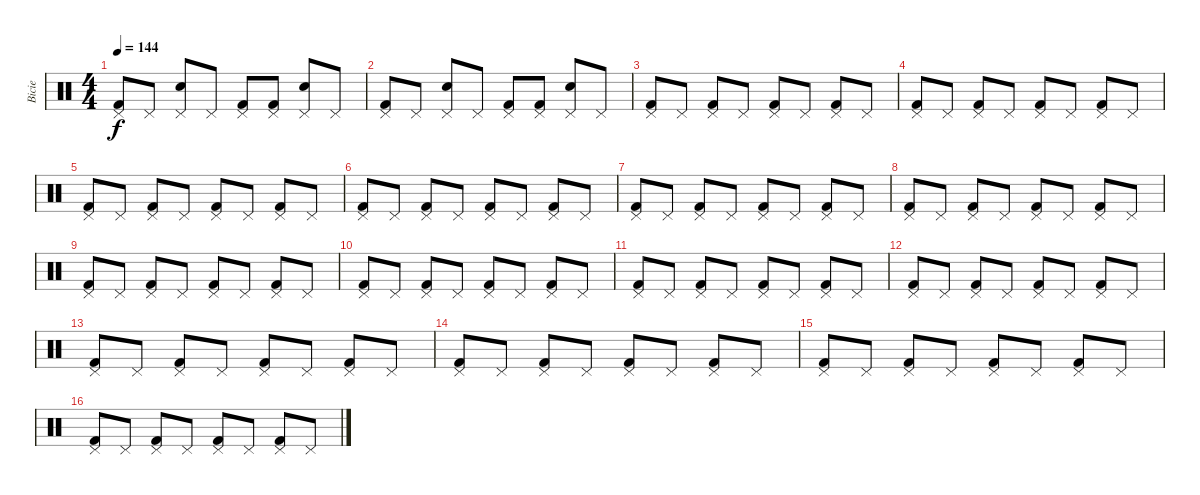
\track ("Bicie" "Bicie") {instrument percussion}
\staff {score}
\articulation defaults
\ts (4 4)
\tempo 144
\clef neutral
\ks c
("Pedal Hi-Hat (hit)" "Kick (hit) 2").8{dy f} "Pedal Hi-Hat (hit)".8 ("Pedal Hi-Hat (hit)" "Snare (hit) 2").8 "Pedal Hi-Hat (hit)".8 ("Pedal Hi-Hat (hit)" "Kick (hit) 2").8 ("Pedal Hi-Hat (hit)" "Kick (hit) 2").8 ("Pedal Hi-Hat (hit)" "Snare (hit) 2").8 "Pedal Hi-Hat (hit)".8 |
("Pedal Hi-Hat (hit)" "Kick (hit) 2").8 "Pedal Hi-Hat (hit)".8 ("Pedal Hi-Hat (hit)" "Snare (hit) 2").8 "Pedal Hi-Hat (hit)".8 ("Pedal Hi-Hat (hit)" "Kick (hit) 2").8 ("Pedal Hi-Hat (hit)" "Kick (hit) 2").8 ("Pedal Hi-Hat (hit)" "Snare (hit) 2").8 "Pedal Hi-Hat (hit)".8 |
("Pedal Hi-Hat (hit)" "Kick (hit) 2").8 "Pedal Hi-Hat (hit)".8 ("Pedal Hi-Hat (hit)" "Kick (hit) 2").8 "Pedal Hi-Hat (hit)".8 ("Pedal Hi-Hat (hit)" "Kick (hit) 2").8 "Pedal Hi-Hat (hit)".8 ("Pedal Hi-Hat (hit)" "Kick (hit) 2").8 "Pedal Hi-Hat (hit)".8 |
("Pedal Hi-Hat (hit)" "Kick (hit) 2").8 "Pedal Hi-Hat (hit)".8 ("Pedal Hi-Hat (hit)" "Kick (hit) 2").8 "Pedal Hi-Hat (hit)".8 ("Pedal Hi-Hat (hit)" "Kick (hit) 2").8 "Pedal Hi-Hat (hit)".8 ("Pedal Hi-Hat (hit)" "Kick (hit) 2").8 "Pedal Hi-Hat (hit)".8 |
("Pedal Hi-Hat (hit)" "Kick (hit) 2").8 "Pedal Hi-Hat (hit)".8 ("Pedal Hi-Hat (hit)" "Kick (hit) 2").8 "Pedal Hi-Hat (hit)".8 ("Pedal Hi-Hat (hit)" "Kick (hit) 2").8 "Pedal Hi-Hat (hit)".8 ("Pedal Hi-Hat (hit)" "Kick (hit) 2").8 "Pedal Hi-Hat (hit)".8 |
("Pedal Hi-Hat (hit)" "Kick (hit) 2").8 "Pedal Hi-Hat (hit)".8 ("Pedal Hi-Hat (hit)" "Kick (hit) 2").8 "Pedal Hi-Hat (hit)".8 ("Pedal Hi-Hat (hit)" "Kick (hit) 2").8 "Pedal Hi-Hat (hit)".8 ("Pedal Hi-Hat (hit)" "Kick (hit) 2").8 "Pedal Hi-Hat (hit)".8 |
("Pedal Hi-Hat (hit)" "Kick (hit) 2").8 "Pedal Hi-Hat (hit)".8 ("Pedal Hi-Hat (hit)" "Kick (hit) 2").8 "Pedal Hi-Hat (hit)".8 ("Pedal Hi-Hat (hit)" "Kick (hit) 2").8 "Pedal Hi-Hat (hit)".8 ("Pedal Hi-Hat (hit)" "Kick (hit) 2").8 "Pedal Hi-Hat (hit)".8 |
("Pedal Hi-Hat (hit)" "Kick (hit) 2").8 "Pedal Hi-Hat (hit)".8 ("Pedal Hi-Hat (hit)" "Kick (hit) 2").8 "Pedal Hi-Hat (hit)".8 ("Pedal Hi-Hat (hit)" "Kick (hit) 2").8 "Pedal Hi-Hat (hit)".8 ("Pedal Hi-Hat (hit)" "Kick (hit) 2").8 "Pedal Hi-Hat (hit)".8 |
("Pedal Hi-Hat (hit)" "Kick (hit) 2").8 "Pedal Hi-Hat (hit)".8 ("Pedal Hi-Hat (hit)" "Kick (hit) 2").8 "Pedal Hi-Hat (hit)".8 ("Pedal Hi-Hat (hit)" "Kick (hit) 2").8 "Pedal Hi-Hat (hit)".8 ("Pedal Hi-Hat (hit)" "Kick (hit) 2").8 "Pedal Hi-Hat (hit)".8 |
("Pedal Hi-Hat (hit)" "Kick (hit) 2").8 "Pedal Hi-Hat (hit)".8 ("Pedal Hi-Hat (hit)" "Kick (hit) 2").8 "Pedal Hi-Hat (hit)".8 ("Pedal Hi-Hat (hit)" "Kick (hit) 2").8 "Pedal Hi-Hat (hit)".8 ("Pedal Hi-Hat (hit)" "Kick (hit) 2").8 "Pedal Hi-Hat (hit)".8 |
("Pedal Hi-Hat (hit)" "Kick (hit) 2").8 "Pedal Hi-Hat (hit)".8 ("Pedal Hi-Hat (hit)" "Kick (hit) 2").8 "Pedal Hi-Hat (hit)".8 ("Pedal Hi-Hat (hit)" "Kick (hit) 2").8 "Pedal Hi-Hat (hit)".8 ("Pedal Hi-Hat (hit)" "Kick (hit) 2").8 "Pedal Hi-Hat (hit)".8 |
("Pedal Hi-Hat (hit)" "Kick (hit) 2").8 "Pedal Hi-Hat (hit)".8 ("Pedal Hi-Hat (hit)" "Kick (hit) 2").8 "Pedal Hi-Hat (hit)".8 ("Pedal Hi-Hat (hit)" "Kick (hit) 2").8 "Pedal Hi-Hat (hit)".8 ("Pedal Hi-Hat (hit)" "Kick (hit) 2").8 "Pedal Hi-Hat (hit)".8 |
("Pedal Hi-Hat (hit)" "Kick (hit) 2").8 "Pedal Hi-Hat (hit)".8 ("Pedal Hi-Hat (hit)" "Kick (hit) 2").8 "Pedal Hi-Hat (hit)".8 ("Pedal Hi-Hat (hit)" "Kick (hit) 2").8 "Pedal Hi-Hat (hit)".8 ("Pedal Hi-Hat (hit)" "Kick (hit) 2").8 "Pedal Hi-Hat (hit)".8 |
("Pedal Hi-Hat (hit)" "Kick (hit) 2").8 "Pedal Hi-Hat (hit)".8 ("Pedal Hi-Hat (hit)" "Kick (hit) 2").8 "Pedal Hi-Hat (hit)".8 ("Pedal Hi-Hat (hit)" "Kick (hit) 2").8 "Pedal Hi-Hat (hit)".8 ("Pedal Hi-Hat (hit)" "Kick (hit) 2").8 "Pedal Hi-Hat (hit)".8 |
("Pedal Hi-Hat (hit)" "Kick (hit) 2").8 "Pedal Hi-Hat (hit)".8 ("Pedal Hi-Hat (hit)" "Kick (hit) 2").8 "Pedal Hi-Hat (hit)".8 ("Pedal Hi-Hat (hit)" "Kick (hit) 2").8 "Pedal Hi-Hat (hit)".8 ("Pedal Hi-Hat (hit)" "Kick (hit) 2").8 "Pedal Hi-Hat (hit)".8 |
("Pedal Hi-Hat (hit)" "Kick (hit) 2").8 "Pedal Hi-Hat (hit)".8 ("Pedal Hi-Hat (hit)" "Kick (hit) 2").8 "Pedal Hi-Hat (hit)".8 ("Pedal Hi-Hat (hit)" "Kick (hit) 2").8 "Pedal Hi-Hat (hit)".8 ("Pedal Hi-Hat (hit)" "Kick (hit) 2").8 "Pedal Hi-Hat (hit)".8
